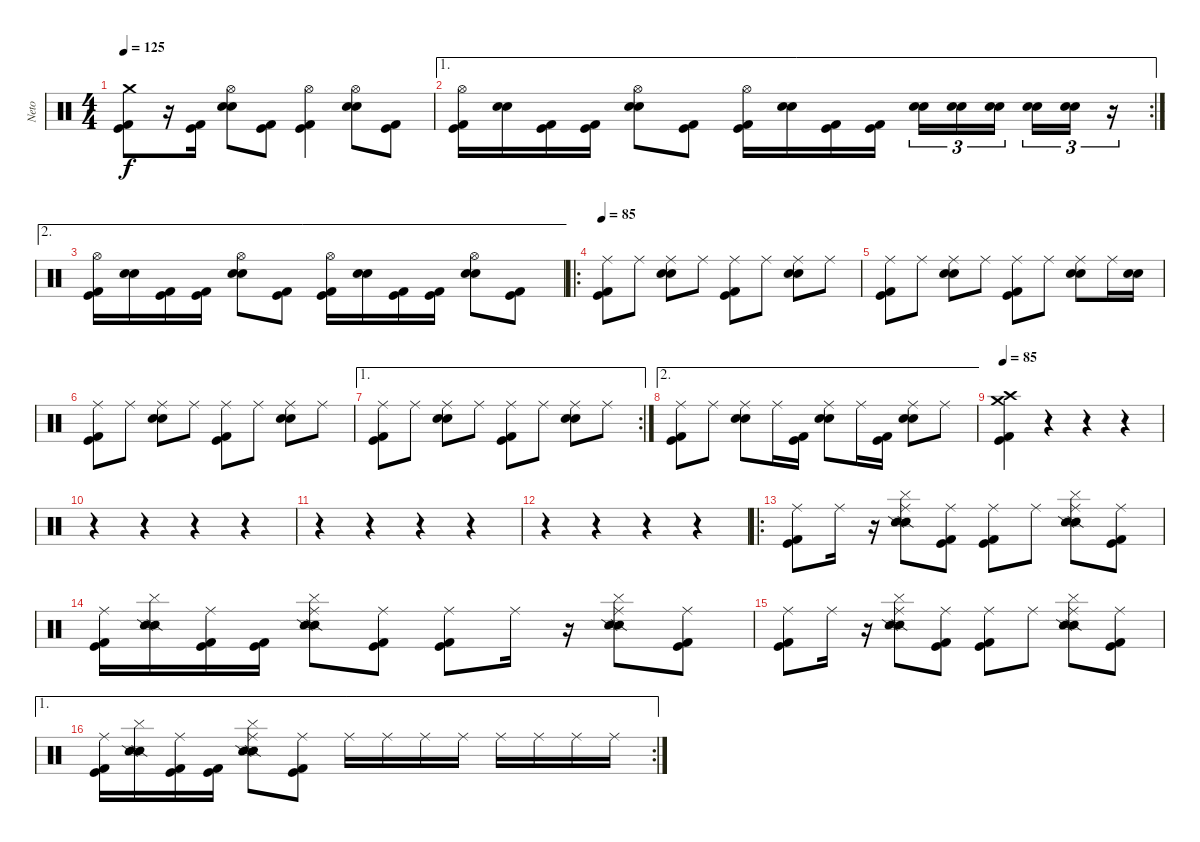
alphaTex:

\track ("Neto" "Neto") {instrument percussion}
\staff {score}
\articulation defaults
\ts (4 4)
\tempo 125
\clef neutral
\ks c
("Crash medium (hit)" "Kick (hit)" "Kick (hit) 2").8{dy f} r.16 ("Kick (hit)" "Kick (hit) 2").16 ("Hi-Hat (open)" "Snare (hit) 2" "Snare (hit) 2").8 ("Kick (hit)" "Kick (hit) 2").8 ("Hi-Hat (open)" "Kick (hit)" "Kick (hit) 2").4 ("Hi-Hat (open)" "Snare (hit) 2" "Snare (hit) 2").8 ("Kick (hit)" "Kick (hit) 2").8 |
\ae 1
\rc 2
("Hi-Hat (open)" "Kick (hit)" "Kick (hit) 2").16 ("Snare (hit) 2" "Snare (hit) 2").16 ("Kick (hit)" "Kick (hit) 2").16 ("Kick (hit)" "Kick (hit) 2").16 ("Hi-Hat (open)" "Snare (hit) 2" "Snare (hit) 2").8 ("Kick (hit)" "Kick (hit) 2").8 ("Hi-Hat (open)" "Kick (hit)" "Kick (hit) 2").16 ("Snare (hit) 2" "Snare (hit) 2").16 ("Kick (hit)" "Kick (hit) 2").16 ("Kick (hit)" "Kick (hit) 2").16 ("Snare (hit) 2" "Snare (hit) 2").16{tu (3 2)} ("Snare (hit) 2" "Snare (hit) 2").16{tu (3 2)} ("Snare (hit) 2" "Snare (hit) 2").16{tu (3 2)} ("Snare (hit) 2" "Snare (hit) 2").16{tu (3 2)} ("Snare (hit) 2" "Snare (hit) 2").16{tu (3 2)} r.16{tu (3 2)} |
\ae 2
("Hi-Hat (open)" "Kick (hit)" "Kick (hit) 2").16 ("Snare (hit) 2" "Snare (hit) 2").16 ("Kick (hit)" "Kick (hit) 2").16 ("Kick (hit)" "Kick (hit) 2").16 ("Hi-Hat (open)" "Snare (hit) 2" "Snare (hit) 2").8 ("Kick (hit)" "Kick (hit) 2").8 ("Hi-Hat (open)" "Kick (hit)" "Kick (hit) 2").16 ("Snare (hit) 2" "Snare (hit) 2").16 ("Kick (hit)" "Kick (hit) 2").16 ("Kick (hit)" "Kick (hit) 2").16 ("Hi-Hat (open)" "Snare (hit) 2" "Snare (hit) 2").8 ("Kick (hit)" "Kick (hit) 2").8 |
\ro
\tempo 85
("Ride (middle)" "Kick (hit)" "Kick (hit) 2").8 "Ride (middle)".8 ("Ride (middle)" "Snare (hit) 2" "Snare (hit) 2").8 "Ride (middle)".8 ("Ride (middle)" "Kick (hit)" "Kick (hit) 2").8 "Ride (middle)".8 ("Ride (middle)" "Snare (hit) 2" "Snare (hit) 2").8 "Ride (middle)".8 |
("Ride (middle)" "Kick (hit)" "Kick (hit) 2").8 "Ride (middle)".8 ("Ride (middle)" "Snare (hit) 2" "Snare (hit) 2").8 "Ride (middle)".8 ("Ride (middle)" "Kick (hit)" "Kick (hit) 2").8 "Ride (middle)".8 ("Ride (middle)" "Snare (hit) 2" "Snare (hit) 2").8 "Ride (middle)".16 ("Snare (hit) 2" "Snare (hit) 2").16 |
("Ride (middle)" "Kick (hit)" "Kick (hit) 2").8 "Ride (middle)".8 ("Ride (middle)" "Snare (hit) 2" "Snare (hit) 2").8 "Ride (middle)".8 ("Ride (middle)" "Kick (hit)" "Kick (hit) 2").8 "Ride (middle)".8 ("Ride (middle)" "Snare (hit) 2" "Snare (hit) 2").8 "Ride (middle)".8 |
\ae 1
\rc 2
("Ride (middle)" "Kick (hit)" "Kick (hit) 2").8 "Ride (middle)".8 ("Ride (middle)" "Snare (hit) 2" "Snare (hit) 2").8 "Ride (middle)".8 ("Ride (middle)" "Kick (hit)" "Kick (hit) 2").8 "Ride (middle)".8 ("Ride (middle)" "Snare (hit) 2" "Snare (hit) 2").8 "Ride (middle)".8 |
\ae 2
("Ride (middle)" "Kick (hit)" "Kick (hit) 2").8 "Ride (middle)".8 ("Ride (middle)" "Snare (hit) 2" "Snare (hit) 2").8 "Ride (middle)".16 ("Kick (hit)" "Kick (hit) 2").16 ("Ride (middle)" "Snare (hit) 2" "Snare (hit) 2").8 "Ride (middle)".16 ("Kick (hit)" "Kick (hit) 2").16 ("Ride (middle)" "Snare (hit) 2" "Snare (hit) 2").8 "Ride (middle)".8 |
\tempo 85
("Crash medium (hit)" "Crash high (hit)" "Kick (hit)" "Kick (hit) 2").4 r.4 r.4 r.4 |
r.4 r.4 r.4 r.4 |
r.4 r.4 r.4 r.4 |
r.4 r.4 r.4 r.4 |
\ro
("Ride (middle)" "Kick (hit)" "Kick (hit) 2").8 "Ride (middle)".16 r.16 ("Ride (middle)" "Snare (side stick) 2" "Snare (side stick) 2" "Cymbal (hit)").8 ("Ride (middle)" "Kick (hit)" "Kick (hit) 2").8 ("Ride (middle)" "Kick (hit)" "Kick (hit) 2").8 "Ride (middle)".8 ("Ride (middle)" "Snare (side stick) 2" "Snare (side stick) 2" "Cymbal (hit)").8 ("Ride (middle)" "Kick (hit)" "Kick (hit) 2").8 |
("Ride (middle)" "Kick (hit)" "Kick (hit) 2").16 ("Snare (side stick) 2" "Snare (side stick) 2" "Cymbal (hit)").16 ("Ride (middle)" "Kick (hit)" "Kick (hit) 2").16 ("Kick (hit)" "Kick (hit) 2").16 ("Ride (middle)" "Snare (side stick) 2" "Snare (side stick) 2" "Cymbal (hit)").8 ("Ride (middle)" "Kick (hit)" "Kick (hit) 2").8 ("Ride (middle)" "Kick (hit)" "Kick (hit) 2").8 "Ride (middle)".16 r.16 ("Ride (middle)" "Snare (side stick) 2" "Snare (side stick) 2" "Cymbal (hit)").8 ("Ride (middle)" "Kick (hit)" "Kick (hit) 2").8 |
("Ride (middle)" "Kick (hit)" "Kick (hit) 2").8 "Ride (middle)".16 r.16 ("Ride (middle)" "Snare (side stick) 2" "Snare (side stick) 2" "Cymbal (hit)").8 ("Ride (middle)" "Kick (hit)" "Kick (hit) 2").8 ("Ride (middle)" "Kick (hit)" "Kick (hit) 2").8 "Ride (middle)".8 ("Ride (middle)" "Snare (side stick) 2" "Snare (side stick) 2" "Cymbal (hit)").8 ("Ride (middle)" "Kick (hit)" "Kick (hit) 2").8 |
\ae 1
\rc 2
("Ride (middle)" "Kick (hit)" "Kick (hit) 2").16 ("Snare (side stick) 2" "Snare (side stick) 2" "Cymbal (hit)").16 ("Ride (middle)" "Kick (hit)" "Kick (hit) 2").16 ("Kick (hit)" "Kick (hit) 2").16 ("Ride (middle)" "Snare (side stick) 2" "Snare (side stick) 2" "Cymbal (hit)").8 ("Ride (middle)" "Kick (hit)" "Kick (hit) 2").8 "Ride (middle)".16 "Ride (middle)".16 "Ride (middle)".16 "Ride (middle)".16 "Ride (middle)".16 "Ride (middle)".16 "Ride (middle)".16 "Ride (middle)".16
